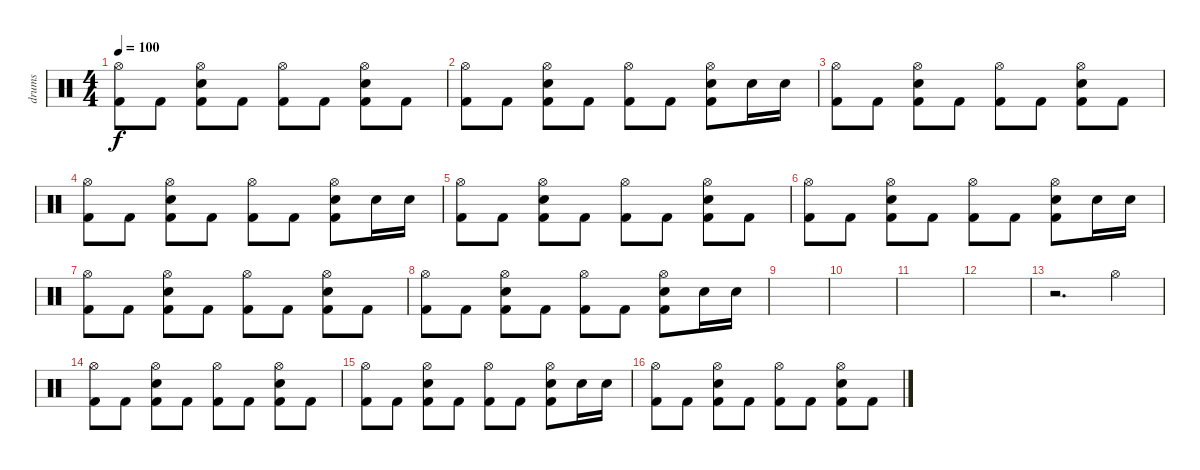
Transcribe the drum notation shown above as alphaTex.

\track ("drums" "drums") {instrument percussion}
\staff {score}
\articulation defaults
\ts (4 4)
\tempo 100
\clef neutral
\ks c
("Hi-Hat (open)" "Kick (hit) 2").8{dy f} "Kick (hit) 2".8 ("Hi-Hat (open)" "Snare (hit) 2" "Kick (hit) 2").8 "Kick (hit) 2".8 ("Hi-Hat (open)" "Kick (hit) 2").8 "Kick (hit) 2".8 ("Hi-Hat (open)" "Snare (hit) 2" "Kick (hit) 2").8 "Kick (hit) 2".8 |
("Hi-Hat (open)" "Kick (hit) 2").8 "Kick (hit) 2".8 ("Hi-Hat (open)" "Snare (hit) 2" "Kick (hit) 2").8 "Kick (hit) 2".8 ("Hi-Hat (open)" "Kick (hit) 2").8 "Kick (hit) 2".8 ("Hi-Hat (open)" "Snare (hit) 2" "Kick (hit) 2").8 "Snare (hit) 2".16 "Snare (hit) 2".16 |
("Hi-Hat (open)" "Kick (hit) 2").8 "Kick (hit) 2".8 ("Hi-Hat (open)" "Snare (hit) 2" "Kick (hit) 2").8 "Kick (hit) 2".8 ("Hi-Hat (open)" "Kick (hit) 2").8 "Kick (hit) 2".8 ("Hi-Hat (open)" "Snare (hit) 2" "Kick (hit) 2").8 "Kick (hit) 2".8 |
("Hi-Hat (open)" "Kick (hit) 2").8 "Kick (hit) 2".8 ("Hi-Hat (open)" "Snare (hit) 2" "Kick (hit) 2").8 "Kick (hit) 2".8 ("Hi-Hat (open)" "Kick (hit) 2").8 "Kick (hit) 2".8 ("Hi-Hat (open)" "Snare (hit) 2" "Kick (hit) 2").8 "Snare (hit) 2".16 "Snare (hit) 2".16 |
("Hi-Hat (open)" "Kick (hit) 2").8 "Kick (hit) 2".8 ("Hi-Hat (open)" "Snare (hit) 2" "Kick (hit) 2").8 "Kick (hit) 2".8 ("Hi-Hat (open)" "Kick (hit) 2").8 "Kick (hit) 2".8 ("Hi-Hat (open)" "Snare (hit) 2" "Kick (hit) 2").8 "Kick (hit) 2".8 |
("Hi-Hat (open)" "Kick (hit) 2").8 "Kick (hit) 2".8 ("Hi-Hat (open)" "Snare (hit) 2" "Kick (hit) 2").8 "Kick (hit) 2".8 ("Hi-Hat (open)" "Kick (hit) 2").8 "Kick (hit) 2".8 ("Hi-Hat (open)" "Snare (hit) 2" "Kick (hit) 2").8 "Snare (hit) 2".16 "Snare (hit) 2".16 |
("Hi-Hat (open)" "Kick (hit) 2").8 "Kick (hit) 2".8 ("Hi-Hat (open)" "Snare (hit) 2" "Kick (hit) 2").8 "Kick (hit) 2".8 ("Hi-Hat (open)" "Kick (hit) 2").8 "Kick (hit) 2".8 ("Hi-Hat (open)" "Snare (hit) 2" "Kick (hit) 2").8 "Kick (hit) 2".8 |
("Hi-Hat (open)" "Kick (hit) 2").8 "Kick (hit) 2".8 ("Hi-Hat (open)" "Snare (hit) 2" "Kick (hit) 2").8 "Kick (hit) 2".8 ("Hi-Hat (open)" "Kick (hit) 2").8 "Kick (hit) 2".8 ("Hi-Hat (open)" "Snare (hit) 2" "Kick (hit) 2").8 "Snare (hit) 2".16 "Snare (hit) 2".16 |
|
|
|
|
r.2{d} "Hi-Hat (open)".4 |
("Hi-Hat (open)" "Kick (hit) 2").8 "Kick (hit) 2".8 ("Hi-Hat (open)" "Snare (hit) 2" "Kick (hit) 2").8 "Kick (hit) 2".8 ("Hi-Hat (open)" "Kick (hit) 2").8 "Kick (hit) 2".8 ("Hi-Hat (open)" "Snare (hit) 2" "Kick (hit) 2").8 "Kick (hit) 2".8 |
("Hi-Hat (open)" "Kick (hit) 2").8 "Kick (hit) 2".8 ("Hi-Hat (open)" "Snare (hit) 2" "Kick (hit) 2").8 "Kick (hit) 2".8 ("Hi-Hat (open)" "Kick (hit) 2").8 "Kick (hit) 2".8 ("Hi-Hat (open)" "Snare (hit) 2" "Kick (hit) 2").8 "Snare (hit) 2".16 "Snare (hit) 2".16 |
("Hi-Hat (open)" "Kick (hit) 2").8 "Kick (hit) 2".8 ("Hi-Hat (open)" "Snare (hit) 2" "Kick (hit) 2").8 "Kick (hit) 2".8 ("Hi-Hat (open)" "Kick (hit) 2").8 "Kick (hit) 2".8 ("Hi-Hat (open)" "Snare (hit) 2" "Kick (hit) 2").8 "Kick (hit) 2".8
